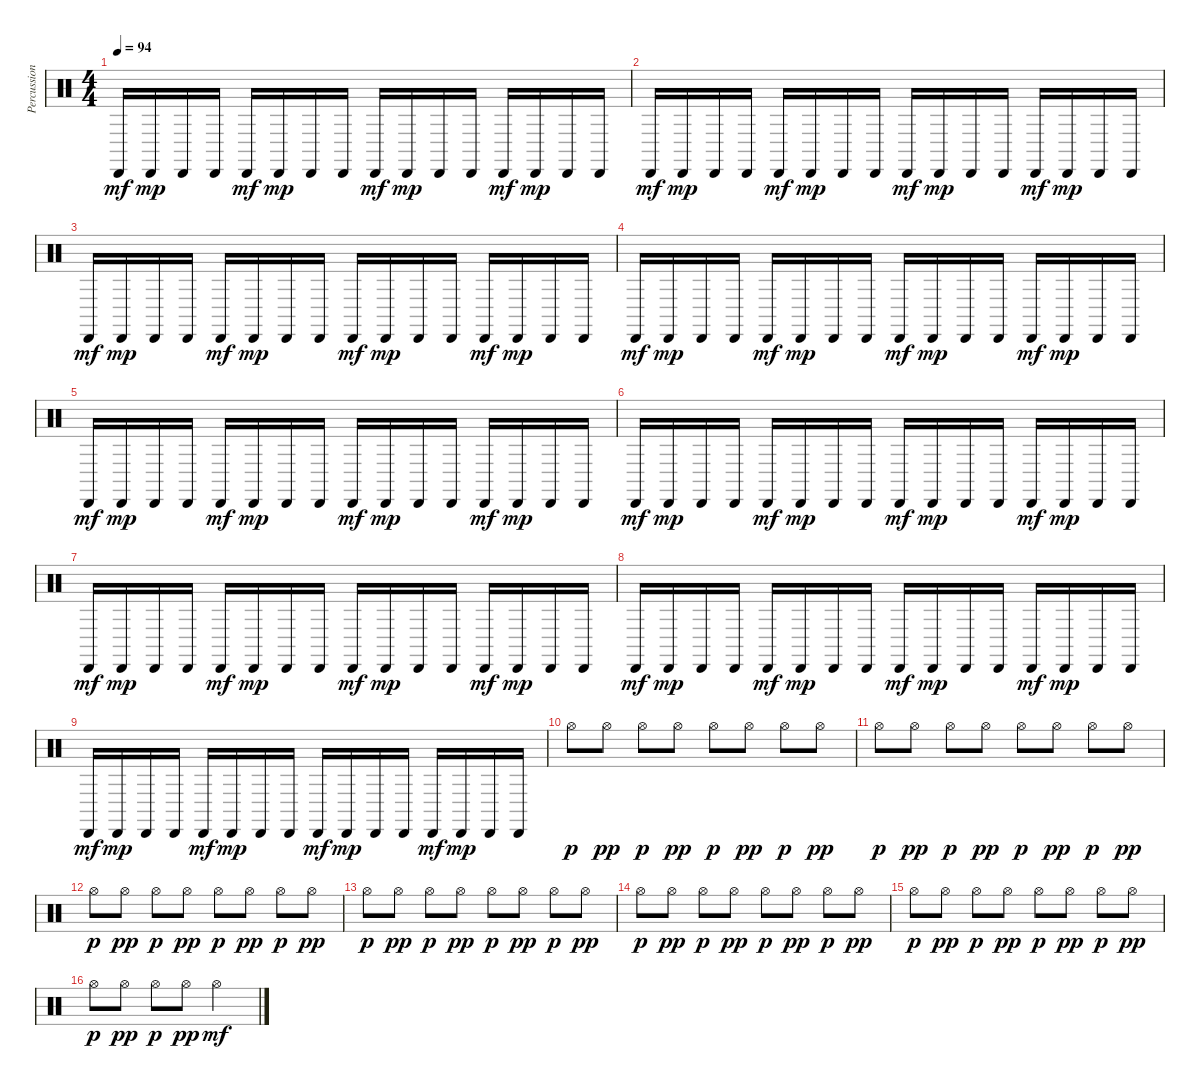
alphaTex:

\track ("Percussions" "Percussion") {instrument percussion}
\staff {score}
\articulation defaults
\ts (4 4)
\tempo 94
\clef neutral
\ks c "Cabasa (hit)".16{dy mf} "Cabasa (hit)".16{dy mp} "Cabasa (hit)".16 "Cabasa (hit)".16 "Cabasa (hit)".16{dy mf} "Cabasa (hit)".16{dy mp} "Cabasa (hit)".16 "Cabasa (hit)".16 "Cabasa (hit)".16{dy mf} "Cabasa (hit)".16{dy mp} "Cabasa (hit)".16 "Cabasa (hit)".16 "Cabasa (hit)".16{dy mf} "Cabasa (hit)".16{dy mp} "Cabasa (hit)".16 "Cabasa (hit)".16
|
"Cabasa (hit)".16{dy mf} "Cabasa (hit)".16{dy mp} "Cabasa (hit)".16 "Cabasa (hit)".16 "Cabasa (hit)".16{dy mf} "Cabasa (hit)".16{dy mp} "Cabasa (hit)".16 "Cabasa (hit)".16 "Cabasa (hit)".16{dy mf} "Cabasa (hit)".16{dy mp} "Cabasa (hit)".16 "Cabasa (hit)".16 "Cabasa (hit)".16{dy mf} "Cabasa (hit)".16{dy mp} "Cabasa (hit)".16 "Cabasa (hit)".16 |
"Cabasa (hit)".16{dy mf} "Cabasa (hit)".16{dy mp} "Cabasa (hit)".16 "Cabasa (hit)".16 "Cabasa (hit)".16{dy mf} "Cabasa (hit)".16{dy mp} "Cabasa (hit)".16 "Cabasa (hit)".16 "Cabasa (hit)".16{dy mf} "Cabasa (hit)".16{dy mp} "Cabasa (hit)".16 "Cabasa (hit)".16 "Cabasa (hit)".16{dy mf} "Cabasa (hit)".16{dy mp} "Cabasa (hit)".16 "Cabasa (hit)".16 |
"Cabasa (hit)".16{dy mf} "Cabasa (hit)".16{dy mp} "Cabasa (hit)".16 "Cabasa (hit)".16 "Cabasa (hit)".16{dy mf} "Cabasa (hit)".16{dy mp} "Cabasa (hit)".16 "Cabasa (hit)".16 "Cabasa (hit)".16{dy mf} "Cabasa (hit)".16{dy mp} "Cabasa (hit)".16 "Cabasa (hit)".16 "Cabasa (hit)".16{dy mf} "Cabasa (hit)".16{dy mp} "Cabasa (hit)".16 "Cabasa (hit)".16 |
"Cabasa (hit)".16{dy mf} "Cabasa (hit)".16{dy mp} "Cabasa (hit)".16 "Cabasa (hit)".16 "Cabasa (hit)".16{dy mf} "Cabasa (hit)".16{dy mp} "Cabasa (hit)".16 "Cabasa (hit)".16 "Cabasa (hit)".16{dy mf} "Cabasa (hit)".16{dy mp} "Cabasa (hit)".16 "Cabasa (hit)".16 "Cabasa (hit)".16{dy mf} "Cabasa (hit)".16{dy mp} "Cabasa (hit)".16 "Cabasa (hit)".16 |
"Cabasa (hit)".16{dy mf} "Cabasa (hit)".16{dy mp} "Cabasa (hit)".16 "Cabasa (hit)".16 "Cabasa (hit)".16{dy mf} "Cabasa (hit)".16{dy mp} "Cabasa (hit)".16 "Cabasa (hit)".16 "Cabasa (hit)".16{dy mf} "Cabasa (hit)".16{dy mp} "Cabasa (hit)".16 "Cabasa (hit)".16 "Cabasa (hit)".16{dy mf} "Cabasa (hit)".16{dy mp} "Cabasa (hit)".16 "Cabasa (hit)".16 |
"Cabasa (hit)".16{dy mf} "Cabasa (hit)".16{dy mp} "Cabasa (hit)".16 "Cabasa (hit)".16 "Cabasa (hit)".16{dy mf} "Cabasa (hit)".16{dy mp} "Cabasa (hit)".16 "Cabasa (hit)".16 "Cabasa (hit)".16{dy mf} "Cabasa (hit)".16{dy mp} "Cabasa (hit)".16 "Cabasa (hit)".16 "Cabasa (hit)".16{dy mf} "Cabasa (hit)".16{dy mp} "Cabasa (hit)".16 "Cabasa (hit)".16 |
"Cabasa (hit)".16{dy mf} "Cabasa (hit)".16{dy mp} "Cabasa (hit)".16 "Cabasa (hit)".16 "Cabasa (hit)".16{dy mf} "Cabasa (hit)".16{dy mp} "Cabasa (hit)".16 "Cabasa (hit)".16 "Cabasa (hit)".16{dy mf} "Cabasa (hit)".16{dy mp} "Cabasa (hit)".16 "Cabasa (hit)".16 "Cabasa (hit)".16{dy mf} "Cabasa (hit)".16{dy mp} "Cabasa (hit)".16 "Cabasa (hit)".16 |
"Cabasa (hit)".16{dy mf} "Cabasa (hit)".16{dy mp} "Cabasa (hit)".16 "Cabasa (hit)".16 "Cabasa (hit)".16{dy mf} "Cabasa (hit)".16{dy mp} "Cabasa (hit)".16 "Cabasa (hit)".16 "Cabasa (hit)".16{dy mf} "Cabasa (hit)".16{dy mp} "Cabasa (hit)".16 "Cabasa (hit)".16 "Cabasa (hit)".16{dy mf} "Cabasa (hit)".16{dy mp} "Cabasa (hit)".16 "Cabasa (hit)".16 |
"Hi-Hat (open)".8{dy p} "Hi-Hat (open)".8{dy pp} "Hi-Hat (open)".8{dy p} "Hi-Hat (open)".8{dy pp} "Hi-Hat (open)".8{dy p} "Hi-Hat (open)".8{dy pp} "Hi-Hat (open)".8{dy p} "Hi-Hat (open)".8{dy pp} |
"Hi-Hat (open)".8{dy p} "Hi-Hat (open)".8{dy pp} "Hi-Hat (open)".8{dy p} "Hi-Hat (open)".8{dy pp} "Hi-Hat (open)".8{dy p} "Hi-Hat (open)".8{dy pp} "Hi-Hat (open)".8{dy p} "Hi-Hat (open)".8{dy pp} |
"Hi-Hat (open)".8{dy p} "Hi-Hat (open)".8{dy pp} "Hi-Hat (open)".8{dy p} "Hi-Hat (open)".8{dy pp} "Hi-Hat (open)".8{dy p} "Hi-Hat (open)".8{dy pp} "Hi-Hat (open)".8{dy p} "Hi-Hat (open)".8{dy pp} |
"Hi-Hat (open)".8{dy p} "Hi-Hat (open)".8{dy pp} "Hi-Hat (open)".8{dy p} "Hi-Hat (open)".8{dy pp} "Hi-Hat (open)".8{dy p} "Hi-Hat (open)".8{dy pp} "Hi-Hat (open)".8{dy p} "Hi-Hat (open)".8{dy pp} |
"Hi-Hat (open)".8{dy p} "Hi-Hat (open)".8{dy pp} "Hi-Hat (open)".8{dy p} "Hi-Hat (open)".8{dy pp} "Hi-Hat (open)".8{dy p} "Hi-Hat (open)".8{dy pp} "Hi-Hat (open)".8{dy p} "Hi-Hat (open)".8{dy pp} |
"Hi-Hat (open)".8{dy p} "Hi-Hat (open)".8{dy pp} "Hi-Hat (open)".8{dy p} "Hi-Hat (open)".8{dy pp} "Hi-Hat (open)".8{dy p} "Hi-Hat (open)".8{dy pp} "Hi-Hat (open)".8{dy p} "Hi-Hat (open)".8{dy pp} |
"Hi-Hat (open)".8{dy p} "Hi-Hat (open)".8{dy pp} "Hi-Hat (open)".8{dy p} "Hi-Hat (open)".8{dy pp} "Hi-Hat (open)".2{dy mf}
